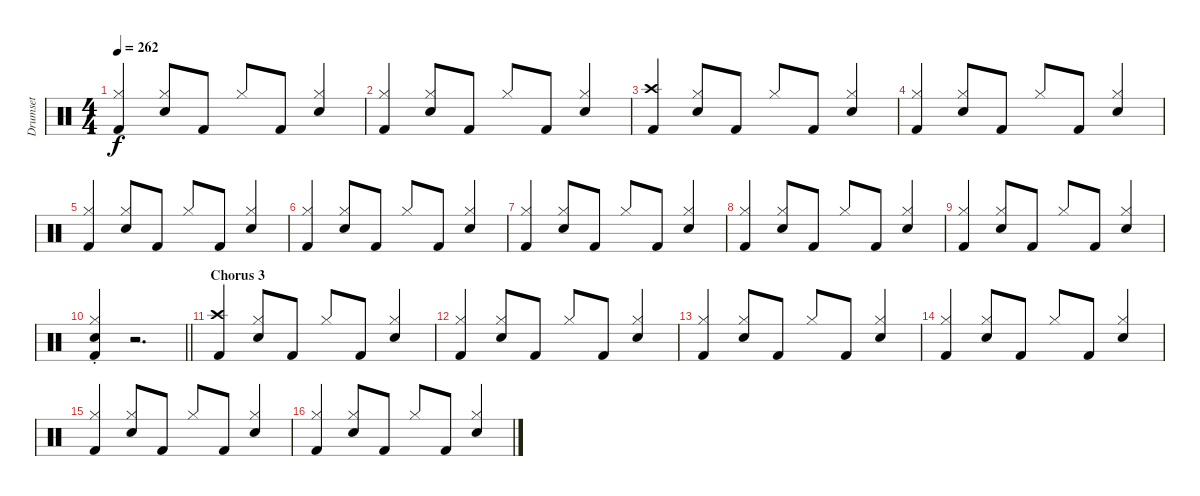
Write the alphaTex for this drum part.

\track ("Drumset" "Drumset") {instrument percussion}
\staff {score}
\articulation defaults
\ts (4 4)
\tempo 262
\clef neutral
\ks c
("Hi-Hat (closed)" "Kick (hit) 2").4{dy f beam Up} ("Hi-Hat (closed)" "Snare (hit) 2").8{beam Up} "Kick (hit) 2".8{beam Up} "Hi-Hat (closed)".8{beam Up} "Kick (hit) 2".8{beam Up} ("Snare (hit) 2" "Hi-Hat (closed)").4{beam Up} |
("Hi-Hat (closed)" "Kick (hit) 2").4{beam Up} ("Hi-Hat (closed)" "Snare (hit) 2").8{beam Up} "Kick (hit) 2".8{beam Up} "Hi-Hat (closed)".8{beam Up} "Kick (hit) 2".8{beam Up} ("Snare (hit) 2" "Hi-Hat (closed)").4{beam Up} |
("Crash high (hit)" "Kick (hit) 2").4{beam Up} ("Hi-Hat (closed)" "Snare (hit) 2").8{beam Up} "Kick (hit) 2".8{beam Up} "Hi-Hat (closed)".8{beam Up} "Kick (hit) 2".8{beam Up} ("Snare (hit) 2" "Hi-Hat (closed)").4{beam Up} |
("Hi-Hat (closed)" "Kick (hit) 2").4{beam Up} ("Hi-Hat (closed)" "Snare (hit) 2").8{beam Up} "Kick (hit) 2".8{beam Up} "Hi-Hat (closed)".8{beam Up} "Kick (hit) 2".8{beam Up} ("Snare (hit) 2" "Hi-Hat (closed)").4{beam Up} |
("Hi-Hat (closed)" "Kick (hit) 2").4{beam Up} ("Hi-Hat (closed)" "Snare (hit) 2").8{beam Up} "Kick (hit) 2".8{beam Up} "Hi-Hat (closed)".8{beam Up} "Kick (hit) 2".8{beam Up} ("Snare (hit) 2" "Hi-Hat (closed)").4{beam Up} |
("Hi-Hat (closed)" "Kick (hit) 2").4{beam Up} ("Hi-Hat (closed)" "Snare (hit) 2").8{beam Up} "Kick (hit) 2".8{beam Up} "Hi-Hat (closed)".8{beam Up} "Kick (hit) 2".8{beam Up} ("Snare (hit) 2" "Hi-Hat (closed)").4{beam Up} |
("Hi-Hat (closed)" "Kick (hit) 2").4{beam Up} ("Hi-Hat (closed)" "Snare (hit) 2").8{beam Up} "Kick (hit) 2".8{beam Up} "Hi-Hat (closed)".8{beam Up} "Kick (hit) 2".8{beam Up} ("Snare (hit) 2" "Hi-Hat (closed)").4{beam Up} |
("Hi-Hat (closed)" "Kick (hit) 2").4{beam Up} ("Hi-Hat (closed)" "Snare (hit) 2").8{beam Up} "Kick (hit) 2".8{beam Up} "Hi-Hat (closed)".8{beam Up} "Kick (hit) 2".8{beam Up} ("Snare (hit) 2" "Hi-Hat (closed)").4{beam Up} |
("Hi-Hat (closed)" "Kick (hit) 2").4{beam Up} ("Hi-Hat (closed)" "Snare (hit) 2").8{beam Up} "Kick (hit) 2".8{beam Up} "Hi-Hat (closed)".8{beam Up} "Kick (hit) 2".8{beam Up} ("Snare (hit) 2" "Hi-Hat (closed)").4{beam Up} |
\barLineRight lightlight
("Hi-Hat (closed)"{st} "Kick (hit) 2"{st} "Snare (hit) 2"{st}).4{beam Up} r.2{d} |
\section ("" "Chorus 3")
("Crash high (hit)" "Kick (hit) 2").4{beam Up} ("Snare (hit) 2" "Hi-Hat (closed)").8{beam Up} "Kick (hit) 2".8{beam Up} "Hi-Hat (closed)".8{beam Up} "Kick (hit) 2".8{beam Up} ("Snare (hit) 2" "Hi-Hat (closed)").4{beam Up} |
("Hi-Hat (closed)" "Kick (hit) 2").4{beam Up} ("Hi-Hat (closed)" "Snare (hit) 2").8{beam Up} "Kick (hit) 2".8{beam Up} "Hi-Hat (closed)".8{beam Up} "Kick (hit) 2".8{beam Up} ("Snare (hit) 2" "Hi-Hat (closed)").4{beam Up} |
("Hi-Hat (closed)" "Kick (hit) 2").4{beam Up} ("Hi-Hat (closed)" "Snare (hit) 2").8{beam Up} "Kick (hit) 2".8{beam Up} "Hi-Hat (closed)".8{beam Up} "Kick (hit) 2".8{beam Up} ("Snare (hit) 2" "Hi-Hat (closed)").4{beam Up} |
("Hi-Hat (closed)" "Kick (hit) 2").4{beam Up} ("Hi-Hat (closed)" "Snare (hit) 2").8{beam Up} "Kick (hit) 2".8{beam Up} "Hi-Hat (closed)".8{beam Up} "Kick (hit) 2".8{beam Up} ("Snare (hit) 2" "Hi-Hat (closed)").4{beam Up} |
("Hi-Hat (closed)" "Kick (hit) 2").4{beam Up} ("Hi-Hat (closed)" "Snare (hit) 2").8{beam Up} "Kick (hit) 2".8{beam Up} "Hi-Hat (closed)".8{beam Up} "Kick (hit) 2".8{beam Up} ("Snare (hit) 2" "Hi-Hat (closed)").4{beam Up} |
("Hi-Hat (closed)" "Kick (hit) 2").4{beam Up} ("Hi-Hat (closed)" "Snare (hit) 2").8{beam Up} "Kick (hit) 2".8{beam Up} "Hi-Hat (closed)".8{beam Up} "Kick (hit) 2".8{beam Up} ("Snare (hit) 2" "Hi-Hat (closed)").4{beam Up}
